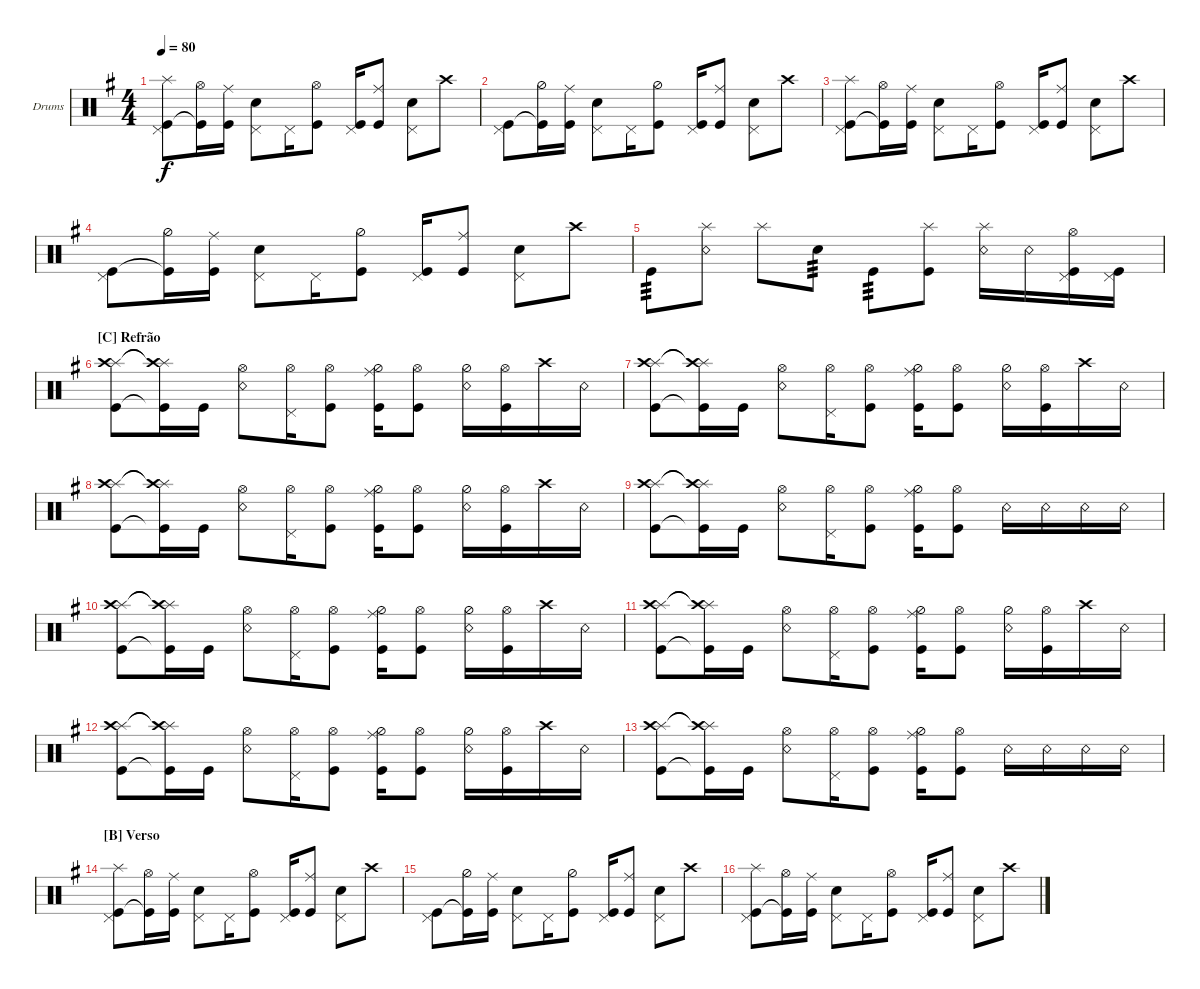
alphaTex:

\defaultSystemsLayout 4
\bracketExtendMode groupsimilarinstruments
\firstSystemTrackNameOrientation horizontal
\otherSystemsTrackNameOrientation horizontal
\track ("Drum" "Drums") {multiBarRest instrument percussion}
\staff {score}
\articulation defaults
\ts (4 4)
\tempo 80
\clef neutral
\ks g
("Kick (hit)" "Pedal Hi-Hat (hit)" "Splash (hit)").8{dy f} ("Kick (hit)"{t} "Hi-Hat (open)").16 ("Kick (hit)" "Ride (middle)").16 ("Snare (hit) 2" "Pedal Hi-Hat (hit)").8 "Pedal Hi-Hat (hit)".16 ("Kick (hit)" "Hi-Hat (open)").8 ("Kick (hit)" "Pedal Hi-Hat (hit)").16 ("Kick (hit)" "Ride (middle)").8 ("Snare (hit) 2" "Pedal Hi-Hat (hit)").8 "Crash high (hit)".8 |
("Kick (hit)" "Pedal Hi-Hat (hit)").8 ("Kick (hit)"{t} "Hi-Hat (half)").16 ("Kick (hit)" "Ride (middle)").16 ("Snare (hit) 2" "Pedal Hi-Hat (hit)").8 "Pedal Hi-Hat (hit)".16 ("Kick (hit)" "Hi-Hat (half)").8 ("Kick (hit)" "Pedal Hi-Hat (hit)").16 ("Kick (hit)" "Ride (middle)").8 ("Snare (hit) 2" "Pedal Hi-Hat (hit)").8 "Crash high (hit)".8 |
("Kick (hit)" "Pedal Hi-Hat (hit)" "Splash (hit)").8 ("Kick (hit)"{t} "Hi-Hat (open)").16 ("Kick (hit)" "Ride (middle)").16 ("Snare (hit) 2" "Pedal Hi-Hat (hit)").8 "Pedal Hi-Hat (hit)".16 ("Kick (hit)" "Hi-Hat (open)").8 ("Kick (hit)" "Pedal Hi-Hat (hit)").16 ("Kick (hit)" "Ride (middle)").8 ("Snare (hit) 2" "Pedal Hi-Hat (hit)").8 "Crash high (hit)".8 |
("Kick (hit)" "Pedal Hi-Hat (hit)").8 ("Kick (hit)"{t} "Hi-Hat (half)").16 ("Kick (hit)" "Ride (middle)").16 ("Snare (hit) 2" "Pedal Hi-Hat (hit)").8 "Pedal Hi-Hat (hit)".16 ("Kick (hit)" "Hi-Hat (half)").8 ("Kick (hit)" "Pedal Hi-Hat (hit)").16 ("Kick (hit)" "Ride (middle)").8 ("Snare (hit) 2" "Pedal Hi-Hat (hit)").8 "Crash high (hit)".8 |
"Kick (hit)".8{tp 3} ("Snare (rim shot)" "Splash (hit)").8 "Splash (hit)".8 "Snare (hit) 2".8{tp 3} "Kick (hit)".8{tp 3} ("Kick (hit)" "Splash (hit)").8 ("Snare (rim shot)" "Splash (hit)").16 "Snare (rim shot)".16 ("Kick (hit)" "Pedal Hi-Hat (hit)" "Hi-Hat (open)").16 ("Pedal Hi-Hat (hit)" "Kick (hit)").16 |
\section ("C" "Refrão")
("Kick (hit)" "Splash (hit)" "Crash high (hit)").8 ("Kick (hit)"{t} "Splash (hit)"{t} "Crash high (hit)"{t}).16 "Kick (hit)".16 ("Snare (rim shot)" "Hi-Hat (open)").8 ("Pedal Hi-Hat (hit)" "Hi-Hat (open)").16 ("Kick (hit)" "Hi-Hat (open)").8 ("Kick (hit)" "Hi-Hat (half)" "Ride (middle)").16 ("Kick (hit)" "Hi-Hat (open)").8 ("Snare (rim shot)" "Hi-Hat (half)").16 ("Kick (hit)" "Hi-Hat (open)").16 "Crash high (hit)".16 "Snare (rim shot)".16 |
("Kick (hit)" "Splash (hit)" "Crash high (hit)").8 ("Kick (hit)"{t} "Splash (hit)"{t} "Crash high (hit)"{t}).16 "Kick (hit)".16 ("Snare (rim shot)" "Hi-Hat (open)").8 ("Pedal Hi-Hat (hit)" "Hi-Hat (open)").16 ("Kick (hit)" "Hi-Hat (open)").8 ("Kick (hit)" "Hi-Hat (half)" "Ride (middle)").16 ("Kick (hit)" "Hi-Hat (open)").8 ("Snare (rim shot)" "Hi-Hat (half)").16 ("Kick (hit)" "Hi-Hat (open)").16 "Crash high (hit)".16 "Snare (rim shot)".16 |
("Kick (hit)" "Splash (hit)" "Crash high (hit)").8 ("Kick (hit)"{t} "Splash (hit)"{t} "Crash high (hit)"{t}).16 "Kick (hit)".16 ("Snare (rim shot)" "Hi-Hat (open)").8 ("Pedal Hi-Hat (hit)" "Hi-Hat (open)").16 ("Kick (hit)" "Hi-Hat (open)").8 ("Kick (hit)" "Hi-Hat (half)" "Ride (middle)").16 ("Kick (hit)" "Hi-Hat (open)").8 ("Snare (rim shot)" "Hi-Hat (half)").16 ("Kick (hit)" "Hi-Hat (open)").16 "Crash high (hit)".16 "Snare (rim shot)".16 |
("Kick (hit)" "Splash (hit)" "Crash high (hit)").8 ("Kick (hit)"{t} "Splash (hit)"{t} "Crash high (hit)"{t}).16 "Kick (hit)".16 ("Snare (rim shot)" "Hi-Hat (open)").8 ("Pedal Hi-Hat (hit)" "Hi-Hat (open)").16 ("Kick (hit)" "Hi-Hat (open)").8 ("Kick (hit)" "Hi-Hat (half)" "Ride (middle)").16 ("Kick (hit)" "Hi-Hat (open)").8 "Snare (rim shot)".16 "Snare (rim shot)".16 "Snare (rim shot)".16 "Snare (rim shot)".16 |
("Kick (hit)" "Splash (hit)" "Crash high (hit)").8 ("Kick (hit)"{t} "Splash (hit)"{t} "Crash high (hit)"{t}).16 "Kick (hit)".16 ("Snare (rim shot)" "Hi-Hat (open)").8 ("Pedal Hi-Hat (hit)" "Hi-Hat (open)").16 ("Kick (hit)" "Hi-Hat (open)").8 ("Kick (hit)" "Hi-Hat (half)" "Ride (middle)").16 ("Kick (hit)" "Hi-Hat (open)").8 ("Snare (rim shot)" "Hi-Hat (half)").16 ("Kick (hit)" "Hi-Hat (open)").16 "Crash high (hit)".16 "Snare (rim shot)".16 |
("Kick (hit)" "Splash (hit)" "Crash high (hit)").8 ("Kick (hit)"{t} "Splash (hit)"{t} "Crash high (hit)"{t}).16 "Kick (hit)".16 ("Snare (rim shot)" "Hi-Hat (open)").8 ("Pedal Hi-Hat (hit)" "Hi-Hat (open)").16 ("Kick (hit)" "Hi-Hat (open)").8 ("Kick (hit)" "Hi-Hat (half)" "Ride (middle)").16 ("Kick (hit)" "Hi-Hat (open)").8 ("Snare (rim shot)" "Hi-Hat (half)").16 ("Kick (hit)" "Hi-Hat (open)").16 "Crash high (hit)".16 "Snare (rim shot)".16 |
("Kick (hit)" "Splash (hit)" "Crash high (hit)").8 ("Kick (hit)"{t} "Splash (hit)"{t} "Crash high (hit)"{t}).16 "Kick (hit)".16 ("Snare (rim shot)" "Hi-Hat (open)").8 ("Pedal Hi-Hat (hit)" "Hi-Hat (open)").16 ("Kick (hit)" "Hi-Hat (open)").8 ("Kick (hit)" "Hi-Hat (half)" "Ride (middle)").16 ("Kick (hit)" "Hi-Hat (open)").8 ("Snare (rim shot)" "Hi-Hat (half)").16 ("Kick (hit)" "Hi-Hat (open)").16 "Crash high (hit)".16 "Snare (rim shot)".16 |
("Kick (hit)" "Splash (hit)" "Crash high (hit)").8 ("Kick (hit)"{t} "Splash (hit)"{t} "Crash high (hit)"{t}).16 "Kick (hit)".16 ("Snare (rim shot)" "Hi-Hat (open)").8 ("Pedal Hi-Hat (hit)" "Hi-Hat (open)").16 ("Kick (hit)" "Hi-Hat (open)").8 ("Kick (hit)" "Hi-Hat (half)" "Ride (middle)").16 ("Kick (hit)" "Hi-Hat (open)").8 "Snare (rim shot)".16 "Snare (rim shot)".16 "Snare (rim shot)".16 "Snare (rim shot)".16 |
\section ("B" "Verso")
("Kick (hit)" "Pedal Hi-Hat (hit)" "Splash (hit)").8 ("Kick (hit)"{t} "Hi-Hat (open)").16 ("Kick (hit)" "Ride (middle)").16 ("Snare (hit) 2" "Pedal Hi-Hat (hit)").8 "Pedal Hi-Hat (hit)".16 ("Kick (hit)" "Hi-Hat (open)").8 ("Kick (hit)" "Pedal Hi-Hat (hit)").16 ("Kick (hit)" "Ride (middle)").8 ("Snare (hit) 2" "Pedal Hi-Hat (hit)").8 "Crash high (hit)".8 |
("Kick (hit)" "Pedal Hi-Hat (hit)").8 ("Kick (hit)"{t} "Hi-Hat (half)").16 ("Kick (hit)" "Ride (middle)").16 ("Snare (hit) 2" "Pedal Hi-Hat (hit)").8 "Pedal Hi-Hat (hit)".16 ("Kick (hit)" "Hi-Hat (half)").8 ("Kick (hit)" "Pedal Hi-Hat (hit)").16 ("Kick (hit)" "Ride (middle)").8 ("Snare (hit) 2" "Pedal Hi-Hat (hit)").8 "Crash high (hit)".8 |
("Kick (hit)" "Pedal Hi-Hat (hit)" "Splash (hit)").8 ("Kick (hit)"{t} "Hi-Hat (open)").16 ("Kick (hit)" "Ride (middle)").16 ("Snare (hit) 2" "Pedal Hi-Hat (hit)").8 "Pedal Hi-Hat (hit)".16 ("Kick (hit)" "Hi-Hat (open)").8 ("Kick (hit)" "Pedal Hi-Hat (hit)").16 ("Kick (hit)" "Ride (middle)").8 ("Snare (hit) 2" "Pedal Hi-Hat (hit)").8 "Crash high (hit)".8
